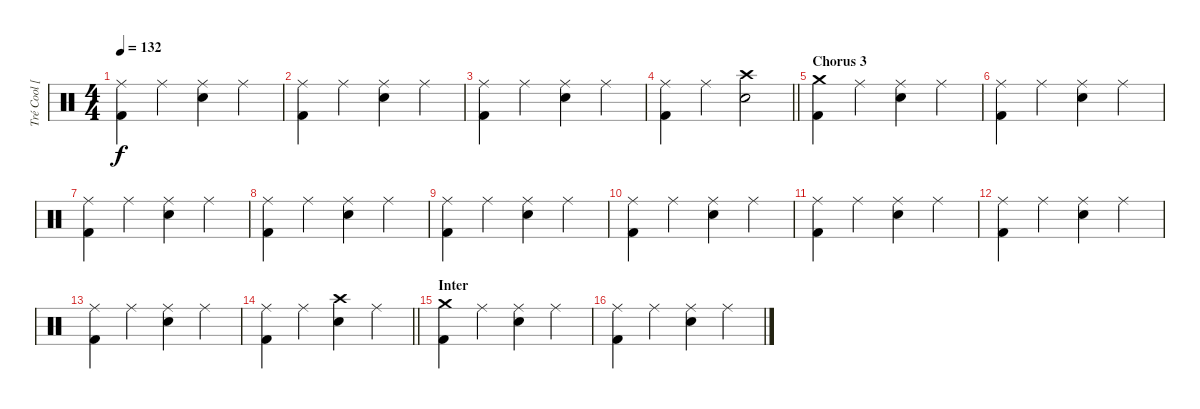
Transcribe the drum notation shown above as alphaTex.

\track ("Tré Cool [Drums]" "Tré Cool [") {instrument percussion}
\staff {score}
\articulation defaults
\ts (4 4)
\tempo 132
\clef neutral
\ks c
("Ride (middle)" "Kick (hit) 2").4{dy f} "Ride (middle)".4 ("Ride (middle)" "Electric Snare (hit)").4 "Ride (middle)".4 |
("Ride (middle)" "Kick (hit) 2").4 "Ride (middle)".4 ("Ride (middle)" "Electric Snare (hit)").4 "Ride (middle)".4 |
("Ride (middle)" "Kick (hit) 2").4 "Ride (middle)".4 ("Ride (middle)" "Electric Snare (hit)").4 "Ride (middle)".4 |
\barLineRight lightlight
("Ride (middle)" "Kick (hit) 2").4 "Ride (middle)".4 ("Crash high (hit)" "Electric Snare (hit)").2 |
\section ("" "Chorus 3")
("Crash medium (hit)" "Kick (hit) 2").4 "Ride (middle)".4 ("Ride (middle)" "Electric Snare (hit)").4 "Ride (middle)".4 |
("Ride (middle)" "Kick (hit) 2").4 "Ride (middle)".4 ("Ride (middle)" "Electric Snare (hit)").4 "Ride (middle)".4 |
("Ride (middle)" "Kick (hit) 2").4 "Ride (middle)".4 ("Ride (middle)" "Electric Snare (hit)").4 "Ride (middle)".4 |
("Ride (middle)" "Kick (hit) 2").4 "Ride (middle)".4 ("Ride (middle)" "Electric Snare (hit)").4 "Ride (middle)".4 |
("Ride (middle)" "Kick (hit) 2").4 "Ride (middle)".4 ("Ride (middle)" "Electric Snare (hit)").4 "Ride (middle)".4 |
("Ride (middle)" "Kick (hit) 2").4 "Ride (middle)".4 ("Ride (middle)" "Electric Snare (hit)").4 "Ride (middle)".4 |
("Ride (middle)" "Kick (hit) 2").4 "Ride (middle)".4 ("Ride (middle)" "Electric Snare (hit)").4 "Ride (middle)".4 |
("Ride (middle)" "Kick (hit) 2").4 "Ride (middle)".4 ("Ride (middle)" "Electric Snare (hit)").4 "Ride (middle)".4 |
("Ride (middle)" "Kick (hit) 2").4 "Ride (middle)".4 ("Ride (middle)" "Electric Snare (hit)").4 "Ride (middle)".4 |
\barLineRight lightlight
("Ride (middle)" "Kick (hit) 2").4 "Ride (middle)".4 ("Crash high (hit)" "Electric Snare (hit)").4 "Ride (middle)".4 |
\section ("" "Inter")
("Crash medium (hit)" "Kick (hit) 2").4 "Ride (middle)".4 ("Ride (middle)" "Electric Snare (hit)").4 "Ride (middle)".4 |
("Ride (middle)" "Kick (hit) 2").4 "Ride (middle)".4 ("Ride (middle)" "Electric Snare (hit)").4 "Ride (middle)".4
